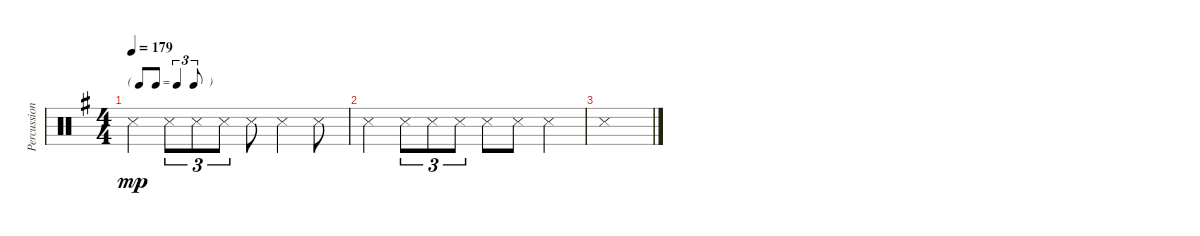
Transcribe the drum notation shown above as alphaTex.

\track ("Percussion" "Percussion") {instrument percussion}
\staff {score}
\articulation defaults
\ts (4 4)
\tf triplet8th
\tempo 179
\clef neutral
\ks g "Snare (side stick) 3".4{dy mp} "Snare (side stick) 3".8{tu (3 2)} "Snare (side stick) 3".8{tu (3 2)} "Snare (side stick) 3".8{tu (3 2)} "Snare (side stick) 3".8 "Snare (side stick) 3".4 "Snare (side stick) 3".8
|
"Snare (side stick) 3".4 "Snare (side stick) 3".8{tu (3 2)} "Snare (side stick) 3".8{tu (3 2)} "Snare (side stick) 3".8{tu (3 2)} "Snare (side stick) 3".8 "Snare (side stick) 3".8 "Snare (side stick) 3".4 |
"Snare (side stick) 3".1
